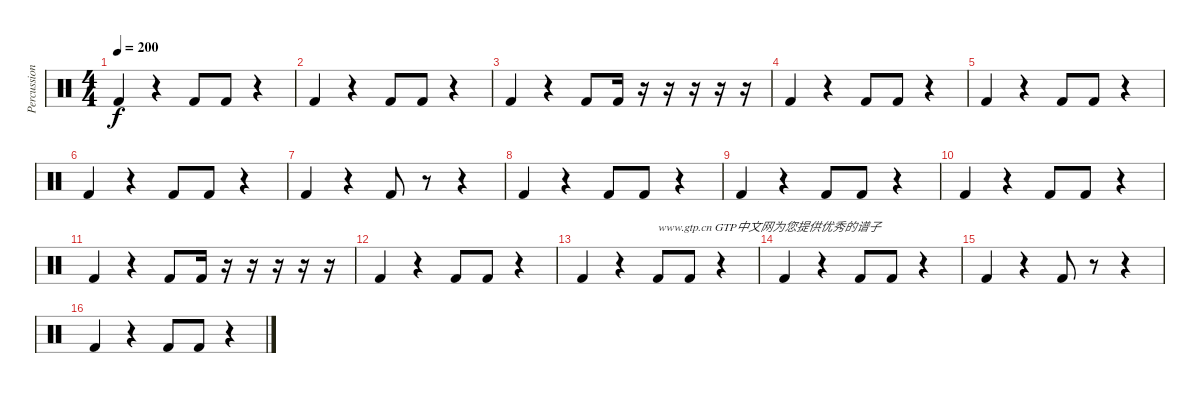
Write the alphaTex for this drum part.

\track ("Percussions 2" "Percussion") {instrument percussion}
\staff {score}
\articulation defaults
\ts (4 4)
\tempo 200
\clef neutral
\ks c "Kick (hit) 2".4{dy f}
r.4 "Kick (hit) 2".8 "Kick (hit) 2".8 r.4 |
"Kick (hit) 2".4 r.4 "Kick (hit) 2".8 "Kick (hit) 2".8 r.4 |
"Kick (hit) 2".4 r.4 "Kick (hit) 2".8 "Kick (hit) 2".16 r.16 r.16 r.16 r.16 r.16 |
"Kick (hit) 2".4 r.4 "Kick (hit) 2".8 "Kick (hit) 2".8 r.4 |
"Kick (hit) 2".4 r.4 "Kick (hit) 2".8 "Kick (hit) 2".8 r.4 |
"Kick (hit) 2".4 r.4 "Kick (hit) 2".8 "Kick (hit) 2".8 r.4 |
"Kick (hit) 2".4 r.4 "Kick (hit) 2".8 r.8 r.4 |
"Kick (hit) 2".4 r.4 "Kick (hit) 2".8 "Kick (hit) 2".8 r.4 |
"Kick (hit) 2".4 r.4 "Kick (hit) 2".8 "Kick (hit) 2".8 r.4 |
"Kick (hit) 2".4 r.4 "Kick (hit) 2".8 "Kick (hit) 2".8 r.4 |
"Kick (hit) 2".4 r.4 "Kick (hit) 2".8 "Kick (hit) 2".16 r.16 r.16 r.16 r.16 r.16 |
"Kick (hit) 2".4 r.4 "Kick (hit) 2".8 "Kick (hit) 2".8 r.4 |
"Kick (hit) 2".4 r.4 "Kick (hit) 2".8{txt "www.gtp.cn GTP中文网为您提供优秀的谱子"} "Kick (hit) 2".8 r.4 |
"Kick (hit) 2".4 r.4 "Kick (hit) 2".8 "Kick (hit) 2".8 r.4 |
"Kick (hit) 2".4 r.4 "Kick (hit) 2".8 r.8 r.4 |
"Kick (hit) 2".4 r.4 "Kick (hit) 2".8 "Kick (hit) 2".8 r.4
